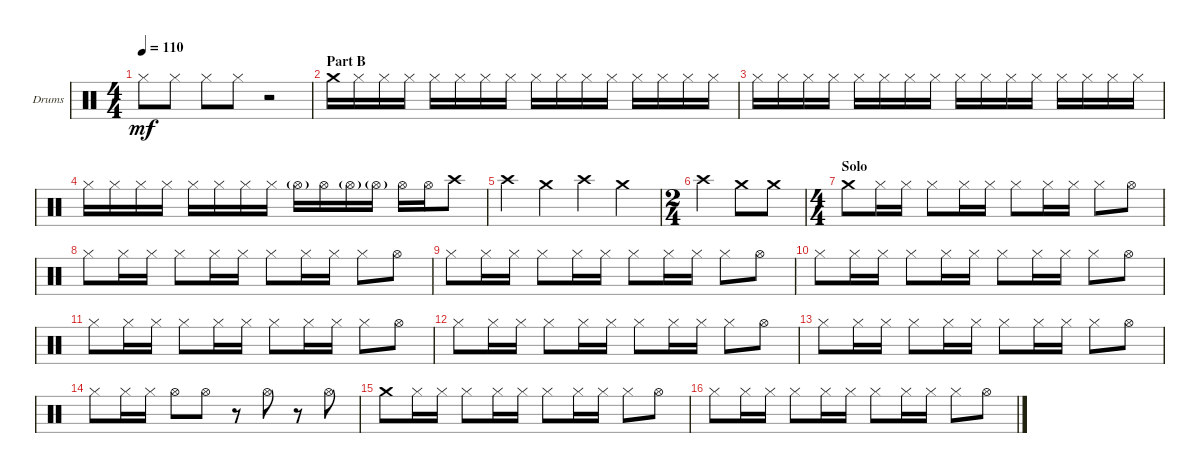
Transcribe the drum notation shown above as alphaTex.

\defaultSystemsLayout 4
\bracketExtendMode groupsimilarinstruments
\firstSystemTrackNameOrientation horizontal
\otherSystemsTrackNameOrientation horizontal
\track ("Drumkit" "Drums") {instrument percussion}
\staff {score}
\articulation defaults
\ts (4 4)
\tempo 110
\clef neutral
\ks c "Hi-Hat (closed)".8{dy mf} "Hi-Hat (closed)".8 "Hi-Hat (closed)".8 "Hi-Hat (closed)".8
r.2 |
\section ("" "Part B")
"Crash medium (hit)".16 "Hi-Hat (closed)".16 "Hi-Hat (closed)".16 "Hi-Hat (closed)".16 "Hi-Hat (closed)".16 "Hi-Hat (closed)".16 "Hi-Hat (closed)".16 "Hi-Hat (closed)".16 "Hi-Hat (closed)".16 "Hi-Hat (closed)".16 "Hi-Hat (closed)".16 "Hi-Hat (closed)".16 "Hi-Hat (closed)".16 "Hi-Hat (closed)".16 "Hi-Hat (closed)".16 "Hi-Hat (closed)".16 |
"Hi-Hat (closed)".16 "Hi-Hat (closed)".16 "Hi-Hat (closed)".16 "Hi-Hat (closed)".16 "Hi-Hat (closed)".16 "Hi-Hat (closed)".16 "Hi-Hat (closed)".16 "Hi-Hat (closed)".16 "Hi-Hat (closed)".16 "Hi-Hat (closed)".16 "Hi-Hat (closed)".16 "Hi-Hat (closed)".16 "Hi-Hat (closed)".16 "Hi-Hat (closed)".16 "Hi-Hat (closed)".16 "Hi-Hat (closed)".16 |
"Hi-Hat (closed)".16 "Hi-Hat (closed)".16 "Hi-Hat (closed)".16 "Hi-Hat (closed)".16 "Hi-Hat (closed)".16 "Hi-Hat (closed)".16 "Hi-Hat (closed)".16 "Hi-Hat (closed)".16 "Hi-Hat (open)"{g}.16 "Hi-Hat (open)".16 "Hi-Hat (open)"{g}.16 "Hi-Hat (open)"{g}.16 "Hi-Hat (open)".16 "Hi-Hat (open)".16 "Crash high (hit)".8 |
"Crash high (hit)".4 "Crash medium (hit)".4 "Crash high (hit)".4 "Crash medium (hit)".4 |
\ts (2 4)
"Crash high (hit)".4 "Crash medium (hit)".8 "Crash medium (hit)".8 |
\ts (4 4)
\section ("" "Solo")
"Crash medium (hit)".8 "Hi-Hat (closed)".16 "Hi-Hat (closed)".16 "Hi-Hat (closed)".8 "Hi-Hat (closed)".16 "Hi-Hat (closed)".16 "Hi-Hat (closed)".8 "Hi-Hat (closed)".16 "Hi-Hat (closed)".16 "Hi-Hat (closed)".8 "Hi-Hat (open)".8 |
"Hi-Hat (closed)".8 "Hi-Hat (closed)".16 "Hi-Hat (closed)".16 "Hi-Hat (closed)".8 "Hi-Hat (closed)".16 "Hi-Hat (closed)".16 "Hi-Hat (closed)".8 "Hi-Hat (closed)".16 "Hi-Hat (closed)".16 "Hi-Hat (closed)".8 "Hi-Hat (open)".8 |
"Hi-Hat (closed)".8 "Hi-Hat (closed)".16 "Hi-Hat (closed)".16 "Hi-Hat (closed)".8 "Hi-Hat (closed)".16 "Hi-Hat (closed)".16 "Hi-Hat (closed)".8 "Hi-Hat (closed)".16 "Hi-Hat (closed)".16 "Hi-Hat (closed)".8 "Hi-Hat (open)".8 |
"Hi-Hat (closed)".8 "Hi-Hat (closed)".16 "Hi-Hat (closed)".16 "Hi-Hat (closed)".8 "Hi-Hat (closed)".16 "Hi-Hat (closed)".16 "Hi-Hat (closed)".8 "Hi-Hat (closed)".16 "Hi-Hat (closed)".16 "Hi-Hat (closed)".8 "Hi-Hat (open)".8 |
"Hi-Hat (closed)".8 "Hi-Hat (closed)".16 "Hi-Hat (closed)".16 "Hi-Hat (closed)".8 "Hi-Hat (closed)".16 "Hi-Hat (closed)".16 "Hi-Hat (closed)".8 "Hi-Hat (closed)".16 "Hi-Hat (closed)".16 "Hi-Hat (closed)".8 "Hi-Hat (open)".8 |
"Hi-Hat (closed)".8 "Hi-Hat (closed)".16 "Hi-Hat (closed)".16 "Hi-Hat (closed)".8 "Hi-Hat (closed)".16 "Hi-Hat (closed)".16 "Hi-Hat (closed)".8 "Hi-Hat (closed)".16 "Hi-Hat (closed)".16 "Hi-Hat (closed)".8 "Hi-Hat (open)".8 |
"Hi-Hat (closed)".8 "Hi-Hat (closed)".16 "Hi-Hat (closed)".16 "Hi-Hat (closed)".8 "Hi-Hat (closed)".16 "Hi-Hat (closed)".16 "Hi-Hat (closed)".8 "Hi-Hat (closed)".16 "Hi-Hat (closed)".16 "Hi-Hat (closed)".8 "Hi-Hat (open)".8 |
"Hi-Hat (closed)".8 "Hi-Hat (closed)".16 "Hi-Hat (closed)".16 "Hi-Hat (open)".8 "Hi-Hat (open)".8 r.8 "Hi-Hat (open)".8 r.8 "Hi-Hat (open)".8 |
"Crash medium (hit)".8 "Hi-Hat (closed)".16 "Hi-Hat (closed)".16 "Hi-Hat (closed)".8 "Hi-Hat (closed)".16 "Hi-Hat (closed)".16 "Hi-Hat (closed)".8 "Hi-Hat (closed)".16 "Hi-Hat (closed)".16 "Hi-Hat (closed)".8 "Hi-Hat (open)".8 |
"Hi-Hat (closed)".8 "Hi-Hat (closed)".16 "Hi-Hat (closed)".16 "Hi-Hat (closed)".8 "Hi-Hat (closed)".16 "Hi-Hat (closed)".16 "Hi-Hat (closed)".8 "Hi-Hat (closed)".16 "Hi-Hat (closed)".16 "Hi-Hat (closed)".8 "Hi-Hat (open)".8
